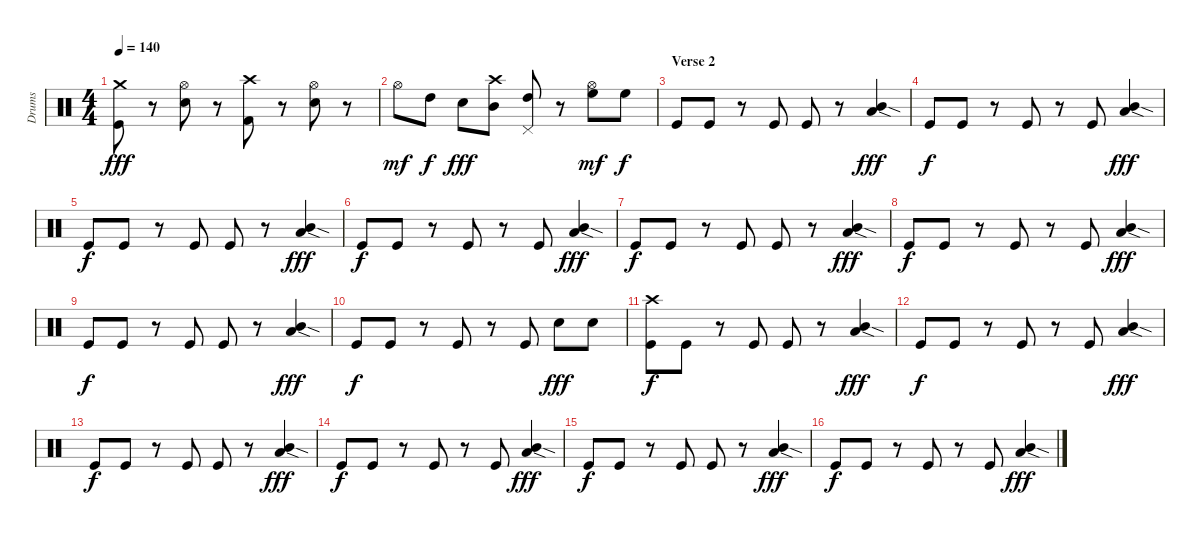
\track ("Drums" "Drums") {instrument percussion}
\staff {score}
\articulation defaults
\ts (4 4)
\tempo 140
\clef neutral
\ks c
("Crash medium (hit)" "Kick (hit)").8{dy fff} r.8 ("Hi-Hat (open)" "Electric Snare (hit)").8 r.8 ("Crash high (hit)" "Kick (hit) 2").8 r.8 ("Hi-Hat (open)" "Electric Snare (hit)").8 r.8 |
"Hi-Hat (open)".8{dy mf} "High Tom (hit)".8{dy f} "Electric Snare (hit)".8{dy fff} ("Crash high (hit)" "Mid Tom (hit)").8 ("Pedal Hi-Hat (hit)" "High Tom (hit)").8 r.8 ("Hi-Hat (open)" "High Floor Tom (hit)").8{dy mf} "High Floor Tom (hit)".8{dy f} |
\section ("" "Verse 2")
"Kick (hit)".8 "Kick (hit)".8 r.8 "Kick (hit)".8 "Kick (hit)".8 r.8 ("Mid Tom (hit)"{sod} "Low Tom (hit)"{sod}).4{dy fff} |
"Kick (hit)".8{dy f} "Kick (hit)".8 r.8 "Kick (hit)".8 r.8 "Kick (hit)".8 ("Mid Tom (hit)"{sod} "Low Tom (hit)"{sod}).4{dy fff} |
"Kick (hit)".8{dy f} "Kick (hit)".8 r.8 "Kick (hit)".8 "Kick (hit)".8 r.8 ("Mid Tom (hit)"{sod} "Low Tom (hit)"{sod}).4{dy fff} |
"Kick (hit)".8{dy f} "Kick (hit)".8 r.8 "Kick (hit)".8 r.8 "Kick (hit)".8 ("Mid Tom (hit)"{sod} "Low Tom (hit)"{sod}).4{dy fff} |
"Kick (hit)".8{dy f} "Kick (hit)".8 r.8 "Kick (hit)".8 "Kick (hit)".8 r.8 ("Mid Tom (hit)"{sod} "Low Tom (hit)"{sod}).4{dy fff} |
"Kick (hit)".8{dy f} "Kick (hit)".8 r.8 "Kick (hit)".8 r.8 "Kick (hit)".8 ("Mid Tom (hit)"{sod} "Low Tom (hit)"{sod}).4{dy fff} |
"Kick (hit)".8{dy f} "Kick (hit)".8 r.8 "Kick (hit)".8 "Kick (hit)".8 r.8 ("Mid Tom (hit)"{sod} "Low Tom (hit)"{sod}).4{dy fff} |
"Kick (hit)".8{dy f} "Kick (hit)".8 r.8 "Kick (hit)".8 r.8 "Kick (hit)".8 "Electric Snare (hit)".8{dy fff} "Electric Snare (hit)".8 |
("Crash high (hit)" "Kick (hit)").8{dy f} "Kick (hit)".8 r.8 "Kick (hit)".8 "Kick (hit)".8 r.8 ("Mid Tom (hit)"{sod} "Low Tom (hit)"{sod}).4{dy fff} |
"Kick (hit)".8{dy f} "Kick (hit)".8 r.8 "Kick (hit)".8 r.8 "Kick (hit)".8 ("Mid Tom (hit)"{sod} "Low Tom (hit)"{sod}).4{dy fff} |
"Kick (hit)".8{dy f} "Kick (hit)".8 r.8 "Kick (hit)".8 "Kick (hit)".8 r.8 ("Mid Tom (hit)"{sod} "Low Tom (hit)"{sod}).4{dy fff} |
"Kick (hit)".8{dy f} "Kick (hit)".8 r.8 "Kick (hit)".8 r.8 "Kick (hit)".8 ("Mid Tom (hit)"{sod} "Low Tom (hit)"{sod}).4{dy fff} |
"Kick (hit)".8{dy f} "Kick (hit)".8 r.8 "Kick (hit)".8 "Kick (hit)".8 r.8 ("Mid Tom (hit)"{sod} "Low Tom (hit)"{sod}).4{dy fff} |
"Kick (hit)".8{dy f} "Kick (hit)".8 r.8 "Kick (hit)".8 r.8 "Kick (hit)".8 ("Mid Tom (hit)"{sod} "Low Tom (hit)"{sod}).4{dy fff}
